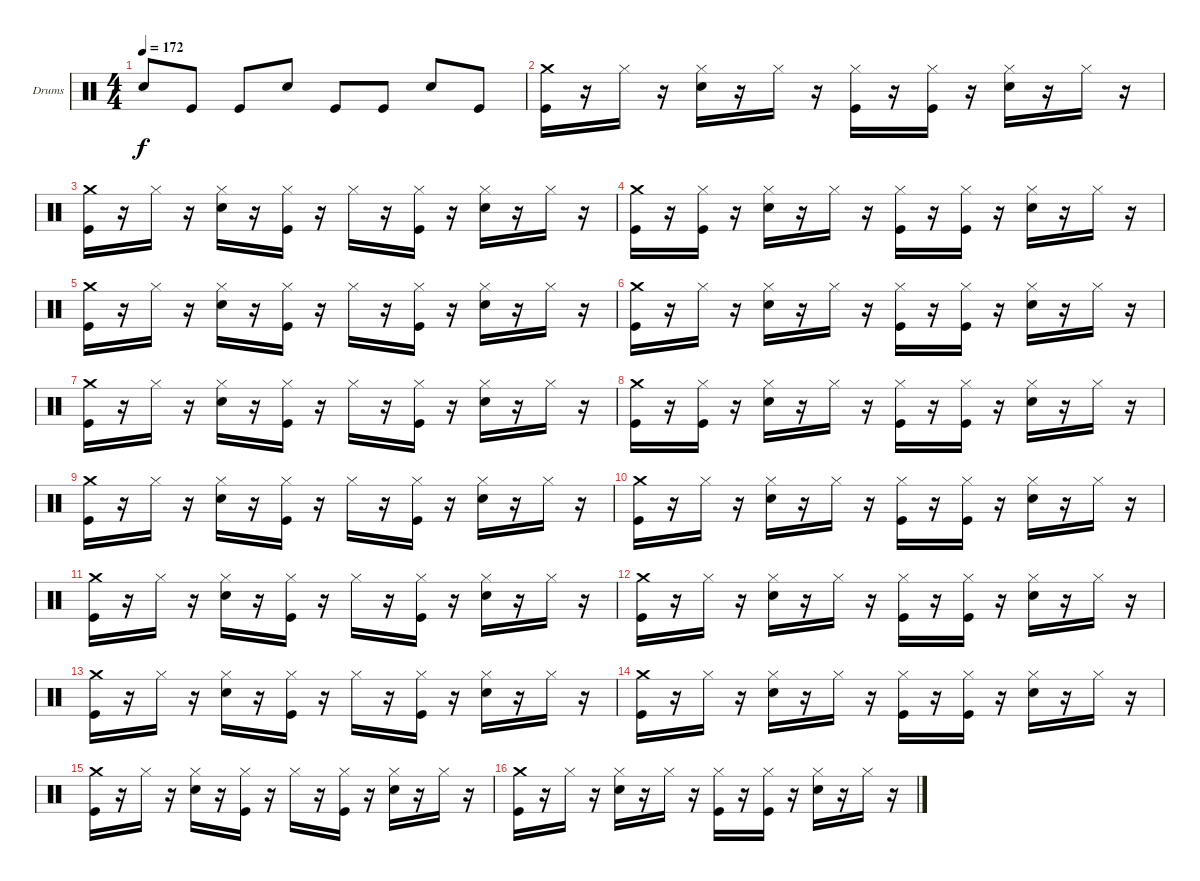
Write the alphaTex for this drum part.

\bracketExtendMode groupsimilarinstruments
\firstSystemTrackNameOrientation horizontal
\otherSystemsTrackNameOrientation horizontal
\track ("Drumkit" "Drums") {instrument percussion}
\staff {score}
\articulation defaults
\ts (4 4)
\tempo 172
\clef neutral
\ks c "Snare (hit) 2".8{dy f} "Kick (hit)".8 "Kick (hit)".8 "Snare (hit) 2".8 "Kick (hit)".8 "Kick (hit)".8 "Snare (hit) 2".8 "Kick (hit)".8
|
("Kick (hit)" "Crash medium (hit)").16 r.16 "Hi-Hat (closed)".16 r.16 ("Snare (hit) 2" "Hi-Hat (closed)").16 r.16 "Hi-Hat (closed)".16 r.16 ("Kick (hit)" "Hi-Hat (closed)").16 r.16 ("Kick (hit)" "Hi-Hat (closed)").16 r.16 ("Snare (hit) 2" "Hi-Hat (closed)").16 r.16 "Hi-Hat (closed)".16 r.16 |
("Kick (hit)" "Crash medium (hit)").16 r.16 "Hi-Hat (closed)".16 r.16 ("Snare (hit) 2" "Hi-Hat (closed)").16 r.16 ("Kick (hit)" "Hi-Hat (closed)").16 r.16 "Hi-Hat (closed)".16 r.16 ("Kick (hit)" "Hi-Hat (closed)").16 r.16 ("Snare (hit) 2" "Hi-Hat (closed)").16 r.16 "Hi-Hat (closed)".16 r.16 |
("Kick (hit)" "Crash medium (hit)").16 r.16 ("Kick (hit)" "Hi-Hat (closed)").16 r.16 ("Snare (hit) 2" "Hi-Hat (closed)").16 r.16 "Hi-Hat (closed)".16 r.16 ("Kick (hit)" "Hi-Hat (closed)").16 r.16 ("Kick (hit)" "Hi-Hat (closed)").16 r.16 ("Snare (hit) 2" "Hi-Hat (closed)").16 r.16 "Hi-Hat (closed)".16 r.16 |
("Kick (hit)" "Crash medium (hit)").16 r.16 "Hi-Hat (closed)".16 r.16 ("Snare (hit) 2" "Hi-Hat (closed)").16 r.16 ("Kick (hit)" "Hi-Hat (closed)").16 r.16 "Hi-Hat (closed)".16 r.16 ("Kick (hit)" "Hi-Hat (closed)").16 r.16 ("Snare (hit) 2" "Hi-Hat (closed)").16 r.16 "Hi-Hat (closed)".16 r.16 |
("Kick (hit)" "Crash medium (hit)").16 r.16 "Hi-Hat (closed)".16 r.16 ("Snare (hit) 2" "Hi-Hat (closed)").16 r.16 "Hi-Hat (closed)".16 r.16 ("Kick (hit)" "Hi-Hat (closed)").16 r.16 ("Kick (hit)" "Hi-Hat (closed)").16 r.16 ("Snare (hit) 2" "Hi-Hat (closed)").16 r.16 "Hi-Hat (closed)".16 r.16 |
("Kick (hit)" "Crash medium (hit)").16 r.16 "Hi-Hat (closed)".16 r.16 ("Snare (hit) 2" "Hi-Hat (closed)").16 r.16 ("Kick (hit)" "Hi-Hat (closed)").16 r.16 "Hi-Hat (closed)".16 r.16 ("Kick (hit)" "Hi-Hat (closed)").16 r.16 ("Snare (hit) 2" "Hi-Hat (closed)").16 r.16 "Hi-Hat (closed)".16 r.16 |
("Kick (hit)" "Crash medium (hit)").16 r.16 ("Kick (hit)" "Hi-Hat (closed)").16 r.16 ("Snare (hit) 2" "Hi-Hat (closed)").16 r.16 "Hi-Hat (closed)".16 r.16 ("Kick (hit)" "Hi-Hat (closed)").16 r.16 ("Kick (hit)" "Hi-Hat (closed)").16 r.16 ("Snare (hit) 2" "Hi-Hat (closed)").16 r.16 "Hi-Hat (closed)".16 r.16 |
("Kick (hit)" "Crash medium (hit)").16 r.16 "Hi-Hat (closed)".16 r.16 ("Snare (hit) 2" "Hi-Hat (closed)").16 r.16 ("Kick (hit)" "Hi-Hat (closed)").16 r.16 "Hi-Hat (closed)".16 r.16 ("Kick (hit)" "Hi-Hat (closed)").16 r.16 ("Snare (hit) 2" "Hi-Hat (closed)").16 r.16 "Hi-Hat (closed)".16 r.16 |
("Kick (hit)" "Crash medium (hit)").16 r.16 "Hi-Hat (closed)".16 r.16 ("Snare (hit) 2" "Hi-Hat (closed)").16 r.16 "Hi-Hat (closed)".16 r.16 ("Kick (hit)" "Hi-Hat (closed)").16 r.16 ("Kick (hit)" "Hi-Hat (closed)").16 r.16 ("Snare (hit) 2" "Hi-Hat (closed)").16 r.16 "Hi-Hat (closed)".16 r.16 |
("Kick (hit)" "Crash medium (hit)").16 r.16 "Hi-Hat (closed)".16 r.16 ("Snare (hit) 2" "Hi-Hat (closed)").16 r.16 ("Kick (hit)" "Hi-Hat (closed)").16 r.16 "Hi-Hat (closed)".16 r.16 ("Kick (hit)" "Hi-Hat (closed)").16 r.16 ("Snare (hit) 2" "Hi-Hat (closed)").16 r.16 "Hi-Hat (closed)".16 r.16 |
("Kick (hit)" "Crash medium (hit)").16 r.16 "Hi-Hat (closed)".16 r.16 ("Snare (hit) 2" "Hi-Hat (closed)").16 r.16 "Hi-Hat (closed)".16 r.16 ("Kick (hit)" "Hi-Hat (closed)").16 r.16 ("Kick (hit)" "Hi-Hat (closed)").16 r.16 ("Snare (hit) 2" "Hi-Hat (closed)").16 r.16 "Hi-Hat (closed)".16 r.16 |
("Kick (hit)" "Crash medium (hit)").16 r.16 "Hi-Hat (closed)".16 r.16 ("Snare (hit) 2" "Hi-Hat (closed)").16 r.16 ("Kick (hit)" "Hi-Hat (closed)").16 r.16 "Hi-Hat (closed)".16 r.16 ("Kick (hit)" "Hi-Hat (closed)").16 r.16 ("Snare (hit) 2" "Hi-Hat (closed)").16 r.16 "Hi-Hat (closed)".16 r.16 |
("Kick (hit)" "Crash medium (hit)").16 r.16 "Hi-Hat (closed)".16 r.16 ("Snare (hit) 2" "Hi-Hat (closed)").16 r.16 "Hi-Hat (closed)".16 r.16 ("Kick (hit)" "Hi-Hat (closed)").16 r.16 ("Kick (hit)" "Hi-Hat (closed)").16 r.16 ("Snare (hit) 2" "Hi-Hat (closed)").16 r.16 "Hi-Hat (closed)".16 r.16 |
("Kick (hit)" "Crash medium (hit)").16 r.16 "Hi-Hat (closed)".16 r.16 ("Snare (hit) 2" "Hi-Hat (closed)").16 r.16 ("Kick (hit)" "Hi-Hat (closed)").16 r.16 "Hi-Hat (closed)".16 r.16 ("Kick (hit)" "Hi-Hat (closed)").16 r.16 ("Snare (hit) 2" "Hi-Hat (closed)").16 r.16 "Hi-Hat (closed)".16 r.16 |
("Kick (hit)" "Crash medium (hit)").16 r.16 "Hi-Hat (closed)".16 r.16 ("Snare (hit) 2" "Hi-Hat (closed)").16 r.16 "Hi-Hat (closed)".16 r.16 ("Kick (hit)" "Hi-Hat (closed)").16 r.16 ("Kick (hit)" "Hi-Hat (closed)").16 r.16 ("Snare (hit) 2" "Hi-Hat (closed)").16 r.16 "Hi-Hat (closed)".16 r.16
